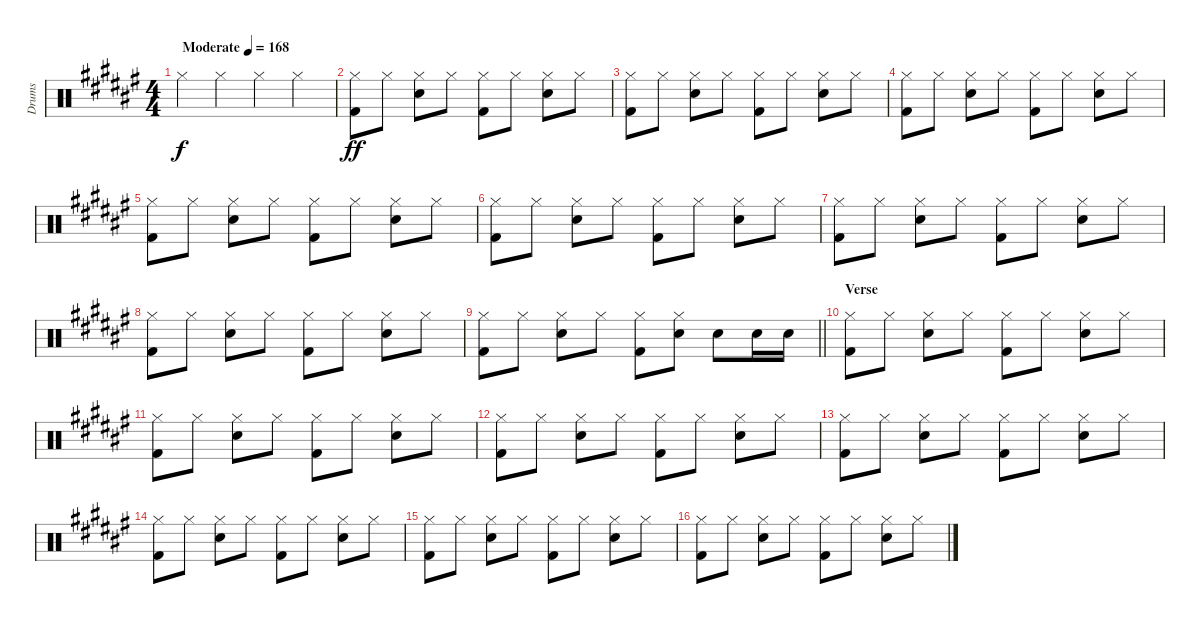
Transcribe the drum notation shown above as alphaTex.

\track ("Drums" "Drums") {instrument percussion}
\staff {score}
\articulation defaults
\ts (4 4)
\tempo (168 "Moderate")
\clef neutral
\ks f# "Hi-Hat (closed)".4{dy f} "Hi-Hat (closed)".4 "Hi-Hat (closed)".4 "Hi-Hat (closed)".4
|
("Hi-Hat (closed)" "Kick (hit) 2").8{dy ff} "Hi-Hat (closed)".8 ("Hi-Hat (closed)" "Electric Snare (hit)").8 "Hi-Hat (closed)".8 ("Hi-Hat (closed)" "Kick (hit) 2").8 "Hi-Hat (closed)".8 ("Hi-Hat (closed)" "Electric Snare (hit)").8 "Hi-Hat (closed)".8 |
("Hi-Hat (closed)" "Kick (hit) 2").8 "Hi-Hat (closed)".8 ("Hi-Hat (closed)" "Electric Snare (hit)").8 "Hi-Hat (closed)".8 ("Hi-Hat (closed)" "Kick (hit) 2").8 "Hi-Hat (closed)".8 ("Hi-Hat (closed)" "Electric Snare (hit)").8 "Hi-Hat (closed)".8 |
("Hi-Hat (closed)" "Kick (hit) 2").8 "Hi-Hat (closed)".8 ("Hi-Hat (closed)" "Electric Snare (hit)").8 "Hi-Hat (closed)".8 ("Hi-Hat (closed)" "Kick (hit) 2").8 "Hi-Hat (closed)".8 ("Hi-Hat (closed)" "Electric Snare (hit)").8 "Hi-Hat (closed)".8 |
("Hi-Hat (closed)" "Kick (hit) 2").8 "Hi-Hat (closed)".8 ("Hi-Hat (closed)" "Electric Snare (hit)").8 "Hi-Hat (closed)".8 ("Hi-Hat (closed)" "Kick (hit) 2").8 "Hi-Hat (closed)".8 ("Hi-Hat (closed)" "Electric Snare (hit)").8 "Hi-Hat (closed)".8 |
("Hi-Hat (closed)" "Kick (hit) 2").8 "Hi-Hat (closed)".8 ("Hi-Hat (closed)" "Electric Snare (hit)").8 "Hi-Hat (closed)".8 ("Hi-Hat (closed)" "Kick (hit) 2").8 "Hi-Hat (closed)".8 ("Hi-Hat (closed)" "Electric Snare (hit)").8 "Hi-Hat (closed)".8 |
("Hi-Hat (closed)" "Kick (hit) 2").8 "Hi-Hat (closed)".8 ("Hi-Hat (closed)" "Electric Snare (hit)").8 "Hi-Hat (closed)".8 ("Hi-Hat (closed)" "Kick (hit) 2").8 "Hi-Hat (closed)".8 ("Hi-Hat (closed)" "Electric Snare (hit)").8 "Hi-Hat (closed)".8 |
("Hi-Hat (closed)" "Kick (hit) 2").8 "Hi-Hat (closed)".8 ("Hi-Hat (closed)" "Electric Snare (hit)").8 "Hi-Hat (closed)".8 ("Hi-Hat (closed)" "Kick (hit) 2").8 "Hi-Hat (closed)".8 ("Hi-Hat (closed)" "Electric Snare (hit)").8 "Hi-Hat (closed)".8 |
\barLineRight lightlight
("Hi-Hat (closed)" "Kick (hit) 2").8 "Hi-Hat (closed)".8 ("Hi-Hat (closed)" "Electric Snare (hit)").8 "Hi-Hat (closed)".8 ("Hi-Hat (closed)" "Kick (hit) 2").8 ("Hi-Hat (closed)" "Electric Snare (hit)").8 "Electric Snare (hit)".8 "Electric Snare (hit)".16 "Electric Snare (hit)".16 |
\section ("" "Verse")
("Hi-Hat (closed)" "Kick (hit) 2").8 "Hi-Hat (closed)".8 ("Hi-Hat (closed)" "Electric Snare (hit)").8 "Hi-Hat (closed)".8 ("Hi-Hat (closed)" "Kick (hit) 2").8 "Hi-Hat (closed)".8 ("Hi-Hat (closed)" "Electric Snare (hit)").8 "Hi-Hat (closed)".8 |
("Hi-Hat (closed)" "Kick (hit) 2").8 "Hi-Hat (closed)".8 ("Hi-Hat (closed)" "Electric Snare (hit)").8 "Hi-Hat (closed)".8 ("Hi-Hat (closed)" "Kick (hit) 2").8 "Hi-Hat (closed)".8 ("Hi-Hat (closed)" "Electric Snare (hit)").8 "Hi-Hat (closed)".8 |
("Hi-Hat (closed)" "Kick (hit) 2").8 "Hi-Hat (closed)".8 ("Hi-Hat (closed)" "Electric Snare (hit)").8 "Hi-Hat (closed)".8 ("Hi-Hat (closed)" "Kick (hit) 2").8 "Hi-Hat (closed)".8 ("Hi-Hat (closed)" "Electric Snare (hit)").8 "Hi-Hat (closed)".8 |
("Hi-Hat (closed)" "Kick (hit) 2").8 "Hi-Hat (closed)".8 ("Hi-Hat (closed)" "Electric Snare (hit)").8 "Hi-Hat (closed)".8 ("Hi-Hat (closed)" "Kick (hit) 2").8 "Hi-Hat (closed)".8 ("Hi-Hat (closed)" "Electric Snare (hit)").8 "Hi-Hat (closed)".8 |
("Hi-Hat (closed)" "Kick (hit) 2").8 "Hi-Hat (closed)".8 ("Hi-Hat (closed)" "Electric Snare (hit)").8 "Hi-Hat (closed)".8 ("Hi-Hat (closed)" "Kick (hit) 2").8 "Hi-Hat (closed)".8 ("Hi-Hat (closed)" "Electric Snare (hit)").8 "Hi-Hat (closed)".8 |
("Hi-Hat (closed)" "Kick (hit) 2").8 "Hi-Hat (closed)".8 ("Hi-Hat (closed)" "Electric Snare (hit)").8 "Hi-Hat (closed)".8 ("Hi-Hat (closed)" "Kick (hit) 2").8 "Hi-Hat (closed)".8 ("Hi-Hat (closed)" "Electric Snare (hit)").8 "Hi-Hat (closed)".8 |
("Hi-Hat (closed)" "Kick (hit) 2").8 "Hi-Hat (closed)".8 ("Hi-Hat (closed)" "Electric Snare (hit)").8 "Hi-Hat (closed)".8 ("Hi-Hat (closed)" "Kick (hit) 2").8 "Hi-Hat (closed)".8 ("Hi-Hat (closed)" "Electric Snare (hit)").8 "Hi-Hat (closed)".8
